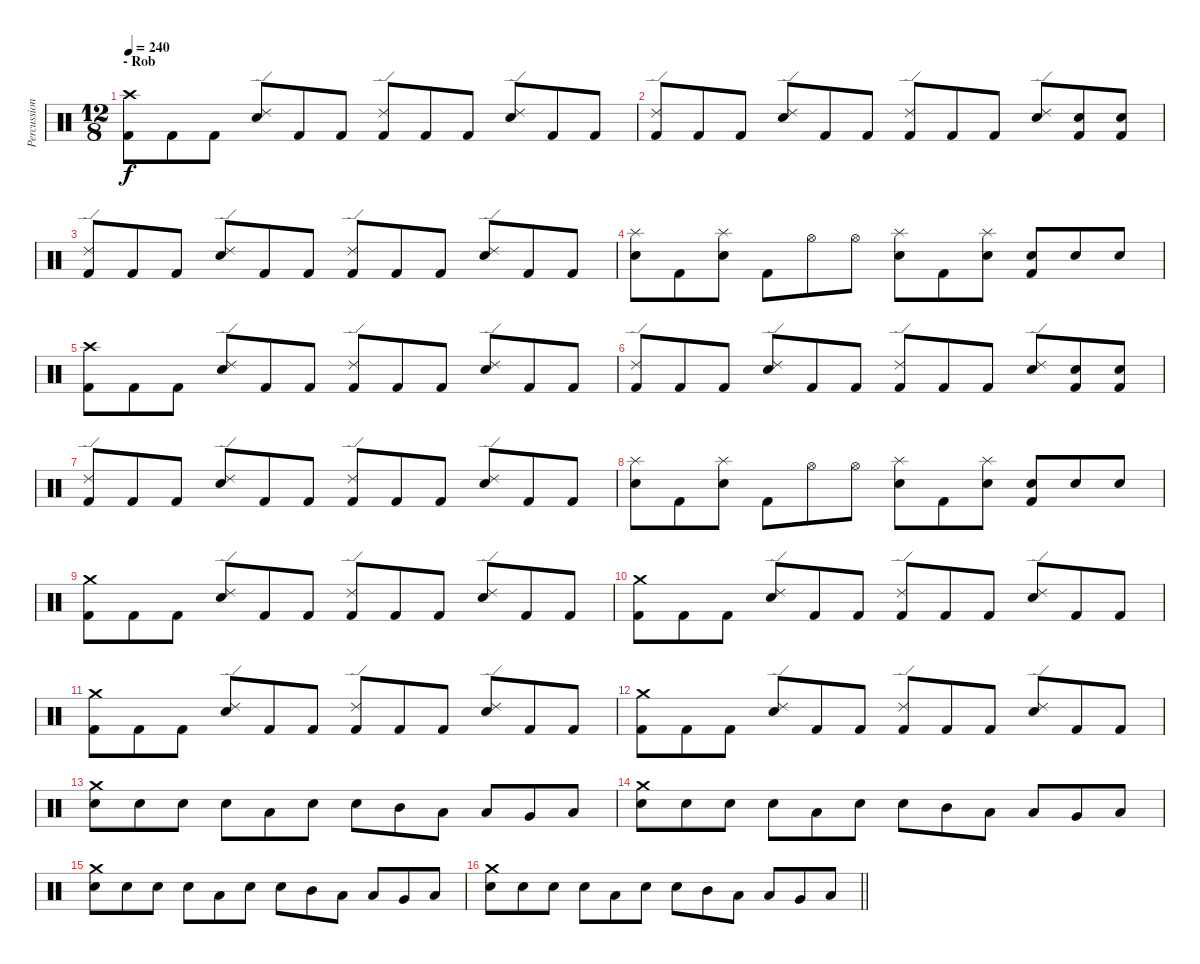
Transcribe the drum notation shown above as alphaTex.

\track ("Percussions" "Percussion") {instrument percussion}
\staff {score}
\articulation defaults
\ts (12 8)
\section ("" "- Rob")
\tempo 240
\clef neutral
\ks c
("Crash high (hit)" "Kick (hit) 2").8{dy f} "Kick (hit) 2".8 "Kick (hit) 2".8 ("Ride (edge) 2" "Electric Snare (hit)").8 "Kick (hit) 2".8 "Kick (hit) 2".8 ("Ride (edge) 2" "Kick (hit) 2").8 "Kick (hit) 2".8 "Kick (hit) 2".8 ("Ride (edge) 2" "Electric Snare (hit)").8 "Kick (hit) 2".8 "Kick (hit) 2".8 |
("Ride (edge) 2" "Kick (hit) 2").8 "Kick (hit) 2".8 "Kick (hit) 2".8 ("Ride (edge) 2" "Electric Snare (hit)").8 "Kick (hit) 2".8 "Kick (hit) 2".8 ("Ride (edge) 2" "Kick (hit) 2").8 "Kick (hit) 2".8 "Kick (hit) 2".8 ("Ride (edge) 2" "Electric Snare (hit)").8 ("Electric Snare (hit)" "Kick (hit) 2").8 ("Electric Snare (hit)" "Kick (hit) 2").8 |
("Ride (edge) 2" "Kick (hit) 2").8 "Kick (hit) 2".8 "Kick (hit) 2".8 ("Ride (edge) 2" "Electric Snare (hit)").8 "Kick (hit) 2".8 "Kick (hit) 2".8 ("Ride (edge) 2" "Kick (hit) 2").8 "Kick (hit) 2".8 "Kick (hit) 2".8 ("Ride (edge) 2" "Electric Snare (hit)").8 "Kick (hit) 2".8 "Kick (hit) 2".8 |
("Splash (hit)" "Electric Snare (hit)").8 "Kick (hit) 2".8 ("Splash (hit)" "Electric Snare (hit)").8 "Kick (hit) 2".8 "Hi-Hat (open)".8 "Hi-Hat (open)".8 ("Splash (hit)" "Electric Snare (hit)").8 "Kick (hit) 2".8 ("Splash (hit)" "Electric Snare (hit)").8 ("Electric Snare (hit)" "Kick (hit) 2").8 "Electric Snare (hit)".8 "Electric Snare (hit)".8 |
("Crash high (hit)" "Kick (hit) 2").8 "Kick (hit) 2".8 "Kick (hit) 2".8 ("Ride (edge) 2" "Electric Snare (hit)").8 "Kick (hit) 2".8 "Kick (hit) 2".8 ("Ride (edge) 2" "Kick (hit) 2").8 "Kick (hit) 2".8 "Kick (hit) 2".8 ("Ride (edge) 2" "Electric Snare (hit)").8 "Kick (hit) 2".8 "Kick (hit) 2".8 |
("Ride (edge) 2" "Kick (hit) 2").8 "Kick (hit) 2".8 "Kick (hit) 2".8 ("Ride (edge) 2" "Electric Snare (hit)").8 "Kick (hit) 2".8 "Kick (hit) 2".8 ("Ride (edge) 2" "Kick (hit) 2").8 "Kick (hit) 2".8 "Kick (hit) 2".8 ("Ride (edge) 2" "Electric Snare (hit)").8 ("Electric Snare (hit)" "Kick (hit) 2").8 ("Electric Snare (hit)" "Kick (hit) 2").8 |
("Ride (edge) 2" "Kick (hit) 2").8 "Kick (hit) 2".8 "Kick (hit) 2".8 ("Ride (edge) 2" "Electric Snare (hit)").8 "Kick (hit) 2".8 "Kick (hit) 2".8 ("Ride (edge) 2" "Kick (hit) 2").8 "Kick (hit) 2".8 "Kick (hit) 2".8 ("Ride (edge) 2" "Electric Snare (hit)").8 "Kick (hit) 2".8 "Kick (hit) 2".8 |
("Splash (hit)" "Electric Snare (hit)").8 "Kick (hit) 2".8 ("Splash (hit)" "Electric Snare (hit)").8 "Kick (hit) 2".8 "Hi-Hat (open)".8 "Hi-Hat (open)".8 ("Splash (hit)" "Electric Snare (hit)").8 "Kick (hit) 2".8 ("Splash (hit)" "Electric Snare (hit)").8 ("Electric Snare (hit)" "Kick (hit) 2").8 "Electric Snare (hit)".8 "Electric Snare (hit)".8 |
("Crash medium (hit)" "Kick (hit) 2").8 "Kick (hit) 2".8 "Kick (hit) 2".8 ("Ride (edge) 2" "Electric Snare (hit)").8 "Kick (hit) 2".8 "Kick (hit) 2".8 ("Ride (edge) 2" "Kick (hit) 2").8 "Kick (hit) 2".8 "Kick (hit) 2".8 ("Ride (edge) 2" "Electric Snare (hit)").8 "Kick (hit) 2".8 "Kick (hit) 2".8 |
("Crash medium (hit)" "Kick (hit) 2").8 "Kick (hit) 2".8 "Kick (hit) 2".8 ("Ride (edge) 2" "Electric Snare (hit)").8 "Kick (hit) 2".8 "Kick (hit) 2".8 ("Ride (edge) 2" "Kick (hit) 2").8 "Kick (hit) 2".8 "Kick (hit) 2".8 ("Ride (edge) 2" "Electric Snare (hit)").8 "Kick (hit) 2".8 "Kick (hit) 2".8 |
("Crash medium (hit)" "Kick (hit) 2").8 "Kick (hit) 2".8 "Kick (hit) 2".8 ("Ride (edge) 2" "Electric Snare (hit)").8 "Kick (hit) 2".8 "Kick (hit) 2".8 ("Ride (edge) 2" "Kick (hit) 2").8 "Kick (hit) 2".8 "Kick (hit) 2".8 ("Ride (edge) 2" "Electric Snare (hit)").8 "Kick (hit) 2".8 "Kick (hit) 2".8 |
("Crash medium (hit)" "Kick (hit) 2").8 "Kick (hit) 2".8 "Kick (hit) 2".8 ("Ride (edge) 2" "Electric Snare (hit)").8 "Kick (hit) 2".8 "Kick (hit) 2".8 ("Ride (edge) 2" "Kick (hit) 2").8 "Kick (hit) 2".8 "Kick (hit) 2".8 ("Ride (edge) 2" "Electric Snare (hit)").8 "Kick (hit) 2".8 "Kick (hit) 2".8 |
("Crash medium (hit)" "Electric Snare (hit)").8 "Electric Snare (hit)".8 "Electric Snare (hit)".8 "Electric Snare (hit)".8 "Low Tom (hit)".8 "Electric Snare (hit)".8 "Electric Snare (hit)".8 "Mid Tom (hit)".8 "Low Tom (hit)".8 "Low Tom (hit)".8 "Very Low Tom (hit)".8 "Low Floor Tom (hit)".8 |
("Crash medium (hit)" "Electric Snare (hit)").8 "Electric Snare (hit)".8 "Electric Snare (hit)".8 "Electric Snare (hit)".8 "Low Tom (hit)".8 "Electric Snare (hit)".8 "Electric Snare (hit)".8 "Mid Tom (hit)".8 "Low Tom (hit)".8 "Low Tom (hit)".8 "Very Low Tom (hit)".8 "Low Floor Tom (hit)".8 |
("Crash medium (hit)" "Electric Snare (hit)").8 "Electric Snare (hit)".8 "Electric Snare (hit)".8 "Electric Snare (hit)".8 "Low Tom (hit)".8 "Electric Snare (hit)".8 "Electric Snare (hit)".8 "Mid Tom (hit)".8 "Low Tom (hit)".8 "Low Tom (hit)".8 "Very Low Tom (hit)".8 "Low Floor Tom (hit)".8 |
\barLineRight lightlight
("Crash medium (hit)" "Electric Snare (hit)").8 "Electric Snare (hit)".8 "Electric Snare (hit)".8 "Electric Snare (hit)".8 "Low Tom (hit)".8 "Electric Snare (hit)".8 "Electric Snare (hit)".8 "Mid Tom (hit)".8 "Low Tom (hit)".8 "Low Tom (hit)".8 "Very Low Tom (hit)".8 "Low Floor Tom (hit)".8
